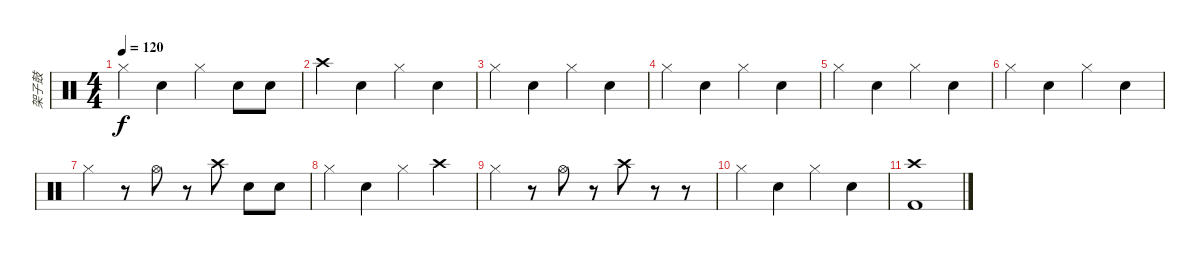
\track ("架子鼓" "架子鼓") {instrument percussion}
\staff {score}
\articulation defaults
\ts (4 4)
\tempo 120
\clef neutral
\ks c "Hi-Hat (closed)".4{dy f} "Snare (hit) 2".4 "Hi-Hat (closed)".4 "Snare (hit) 2".8 "Snare (hit) 2".8
|
"Crash high (hit)".4 "Snare (hit) 2".4 "Hi-Hat (closed)".4 "Snare (hit) 2".4 |
"Hi-Hat (closed)".4 "Snare (hit) 2".4 "Hi-Hat (closed)".4 "Snare (hit) 2".4 |
"Hi-Hat (closed)".4 "Snare (hit) 2".4 "Hi-Hat (closed)".4 "Snare (hit) 2".4 |
"Hi-Hat (closed)".4 "Snare (hit) 2".4 "Hi-Hat (closed)".4 "Snare (hit) 2".4 |
"Hi-Hat (closed)".4 "Snare (hit) 2".4 "Hi-Hat (closed)".4 "Snare (hit) 2".4 |
"Hi-Hat (closed)".4 r.8 "Hi-Hat (open)".8 r.8 "Crash high (hit)".8 "Snare (hit) 2".8 "Snare (hit) 2".8 |
"Hi-Hat (closed)".4 "Snare (hit) 2".4 "Hi-Hat (closed)".4 "Crash high (hit)".4 |
"Hi-Hat (closed)".4 r.8 "Hi-Hat (open)".8 r.8 "Crash high (hit)".8 r.8 r.8 |
"Hi-Hat (closed)".4 "Snare (hit) 2".4 "Hi-Hat (closed)".4 "Snare (hit) 2".4 |
("Crash high (hit)" "Kick (hit) 2").1
